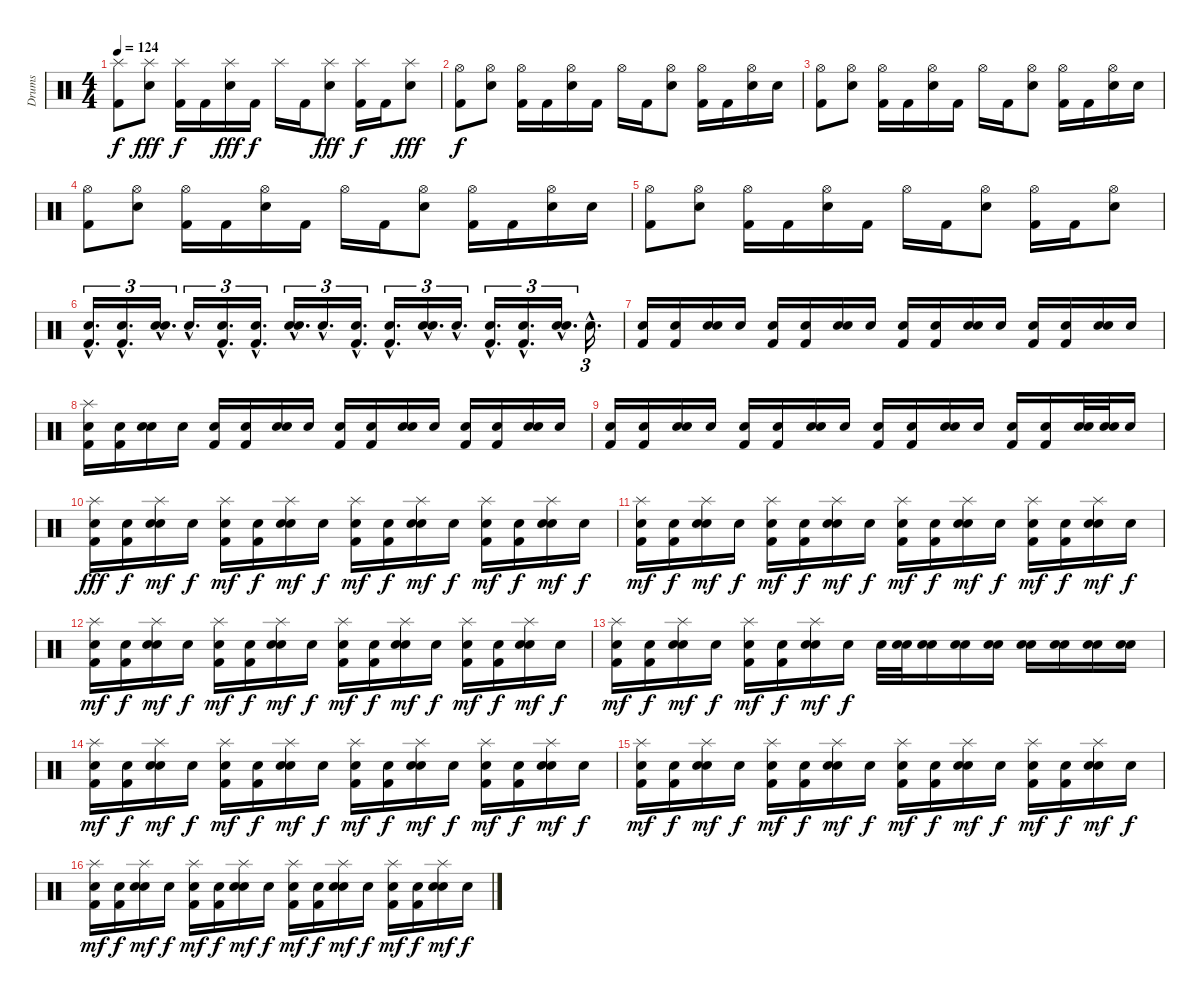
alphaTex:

\track ("Drums" "Drums") {instrument percussion}
\staff {score}
\articulation defaults
\ts (4 4)
\tempo 124
\clef neutral
\ks c
("Splash (hit)" "Kick (hit) 2").8{dy f} ("Splash (hit)" "Electric Snare (hit)").8{dy fff} ("Splash (hit)" "Kick (hit) 2").16{dy f} "Kick (hit) 2".16 ("Splash (hit)" "Electric Snare (hit)").16{dy fff} "Kick (hit) 2".16{dy f} "Splash (hit)".16 "Kick (hit) 2".16 ("Splash (hit)" "Electric Snare (hit)").8{dy fff} ("Splash (hit)" "Kick (hit) 2").16{dy f} "Kick (hit) 2".16 ("Splash (hit)" "Electric Snare (hit)").8{dy fff} |
("Hi-Hat (open)" "Kick (hit) 2").8{dy f} ("Hi-Hat (open)" "Electric Snare (hit)").8 ("Hi-Hat (open)" "Kick (hit) 2").16 "Kick (hit) 2".16 ("Hi-Hat (open)" "Electric Snare (hit)").16 "Kick (hit) 2".16 "Hi-Hat (open)".16 "Kick (hit) 2".16 ("Hi-Hat (open)" "Electric Snare (hit)").8 ("Hi-Hat (open)" "Kick (hit) 2").16 "Kick (hit) 2".16 ("Hi-Hat (open)" "Electric Snare (hit)").16 "Electric Snare (hit)".16 |
("Hi-Hat (open)" "Kick (hit) 2").8 ("Hi-Hat (open)" "Electric Snare (hit)").8 ("Hi-Hat (open)" "Kick (hit) 2").16 "Kick (hit) 2".16 ("Hi-Hat (open)" "Electric Snare (hit)").16 "Kick (hit) 2".16 "Hi-Hat (open)".16 "Kick (hit) 2".16 ("Hi-Hat (open)" "Electric Snare (hit)").8 ("Hi-Hat (open)" "Kick (hit) 2").16 "Kick (hit) 2".16 ("Hi-Hat (open)" "Electric Snare (hit)").16 "Electric Snare (hit)".16 |
("Hi-Hat (open)" "Kick (hit) 2").8 ("Hi-Hat (open)" "Electric Snare (hit)").8 ("Hi-Hat (open)" "Kick (hit) 2").16 "Kick (hit) 2".16 ("Hi-Hat (open)" "Electric Snare (hit)").16 "Kick (hit) 2".16 "Hi-Hat (open)".16 "Kick (hit) 2".16 ("Hi-Hat (open)" "Electric Snare (hit)").8 ("Hi-Hat (open)" "Kick (hit) 2").16 "Kick (hit) 2".16 ("Hi-Hat (open)" "Electric Snare (hit)").16 "Electric Snare (hit)".16 |
("Hi-Hat (open)" "Kick (hit) 2").8 ("Hi-Hat (open)" "Electric Snare (hit)").8 ("Hi-Hat (open)" "Kick (hit) 2").16 "Kick (hit) 2".16 ("Hi-Hat (open)" "Electric Snare (hit)").16 "Kick (hit) 2".16 "Hi-Hat (open)".16 "Kick (hit) 2".16 ("Hi-Hat (open)" "Electric Snare (hit)").8 ("Hi-Hat (open)" "Kick (hit) 2").16 "Kick (hit) 2".16 ("Hi-Hat (open)" "Electric Snare (hit)").8 |
("Snare (hit)"{hac x} "Kick (hit) 2"{hac}).16{d tu (3 2)} ("Snare (hit)"{hac x} "Kick (hit) 2"{hac}).16{d tu (3 2)} ("Snare (hit)"{hac x} "Electric Snare (hit)"{hac}).16{d tu (3 2)} "Snare (hit)"{hac x}.16{d tu (3 2)} ("Snare (hit)"{hac x} "Kick (hit) 2"{hac}).16{d tu (3 2)} ("Snare (hit)"{hac x} "Kick (hit) 2"{hac}).16{d tu (3 2)} ("Snare (hit)"{hac x} "Electric Snare (hit)"{hac}).16{d tu (3 2)} "Snare (hit)"{hac x}.16{d tu (3 2)} ("Snare (hit)"{hac x} "Kick (hit) 2"{hac}).16{d tu (3 2)} ("Snare (hit)"{hac x} "Kick (hit) 2"{hac}).16{d tu (3 2)} ("Snare (hit)"{hac x} "Electric Snare (hit)"{hac}).16{d tu (3 2)} "Snare (hit)"{hac x}.16{d tu (3 2)} ("Snare (hit)"{hac x} "Kick (hit) 2"{hac}).16{d tu (3 2)} ("Snare (hit)"{hac x} "Kick (hit) 2"{hac}).16{d tu (3 2)} ("Snare (hit)"{hac x} "Electric Snare (hit)"{hac}).16{d tu (3 2)} "Snare (hit)"{hac x}.16{d tu (3 2)} |
("Snare (hit)"{x} "Kick (hit) 2").16 ("Snare (hit)"{x} "Kick (hit) 2").16 ("Snare (hit)"{x} "Electric Snare (hit)").16 "Snare (hit)"{x}.16 ("Snare (hit)"{x} "Kick (hit) 2").16 ("Snare (hit)"{x} "Kick (hit) 2").16 ("Snare (hit)"{x} "Electric Snare (hit)").16 "Snare (hit)"{x}.16 ("Snare (hit)"{x} "Kick (hit) 2").16 ("Snare (hit)"{x} "Kick (hit) 2").16 ("Snare (hit)"{x} "Electric Snare (hit)").16 "Snare (hit)"{x}.16 ("Snare (hit)"{x} "Kick (hit) 2").16 ("Snare (hit)"{x} "Kick (hit) 2").16 ("Snare (hit)"{x} "Electric Snare (hit)").16 "Snare (hit)"{x}.16 |
("Snare (hit)"{x} "Splash (hit)" "Kick (hit) 2").16 ("Snare (hit)"{x} "Kick (hit) 2").16 ("Snare (hit)"{x} "Electric Snare (hit)").16 "Snare (hit)"{x}.16 ("Snare (hit)"{x} "Kick (hit) 2").16 ("Snare (hit)"{x} "Kick (hit) 2").16 ("Snare (hit)"{x} "Electric Snare (hit)").16 "Snare (hit)"{x}.16 ("Snare (hit)"{x} "Kick (hit) 2").16 ("Snare (hit)"{x} "Kick (hit) 2").16 ("Snare (hit)"{x} "Electric Snare (hit)").16 "Snare (hit)"{x}.16 ("Snare (hit)"{x} "Kick (hit) 2").16 ("Snare (hit)"{x} "Kick (hit) 2").16 ("Snare (hit)"{x} "Electric Snare (hit)").16 "Snare (hit)"{x}.16 |
("Snare (hit)"{x} "Kick (hit) 2").16 ("Snare (hit)"{x} "Kick (hit) 2").16 ("Snare (hit)"{x} "Electric Snare (hit)").16 "Snare (hit)"{x}.16 ("Snare (hit)"{x} "Kick (hit) 2").16 ("Snare (hit)"{x} "Kick (hit) 2").16 ("Snare (hit)"{x} "Electric Snare (hit)").16 "Snare (hit)"{x}.16 ("Snare (hit)"{x} "Kick (hit) 2").16 ("Snare (hit)"{x} "Kick (hit) 2").16 ("Snare (hit)"{x} "Electric Snare (hit)").16 "Snare (hit)"{x}.16 ("Snare (hit)"{x} "Kick (hit) 2").16 ("Snare (hit)"{x} "Kick (hit) 2").16 ("Snare (hit)"{x} "Electric Snare (hit)").32 ("Snare (hit)"{x} "Electric Snare (hit)").32 "Snare (hit)"{x}.16 |
("Snare (hit)"{x} "Splash (hit)" "Kick (hit) 2").16{dy fff} ("Snare (hit)"{x} "Kick (hit) 2").16{dy f} ("Snare (hit)"{x} "Splash (hit)" "Electric Snare (hit)").16{dy mf} "Snare (hit)"{x}.16{dy f} ("Snare (hit)"{x} "Splash (hit)" "Kick (hit) 2").16{dy mf} ("Snare (hit)"{x} "Kick (hit) 2").16{dy f} ("Snare (hit)"{x} "Splash (hit)" "Electric Snare (hit)").16{dy mf} "Snare (hit)"{x}.16{dy f} ("Snare (hit)"{x} "Splash (hit)" "Kick (hit) 2").16{dy mf} ("Snare (hit)"{x} "Kick (hit) 2").16{dy f} ("Snare (hit)"{x} "Splash (hit)" "Electric Snare (hit)").16{dy mf} "Snare (hit)"{x}.16{dy f} ("Snare (hit)"{x} "Splash (hit)" "Kick (hit) 2").16{dy mf} ("Snare (hit)"{x} "Kick (hit) 2").16{dy f} ("Snare (hit)"{x} "Splash (hit)" "Electric Snare (hit)").16{dy mf} "Snare (hit)"{x}.16{dy f} |
("Snare (hit)"{x} "Splash (hit)" "Kick (hit) 2").16{dy mf} ("Snare (hit)"{x} "Kick (hit) 2").16{dy f} ("Snare (hit)"{x} "Splash (hit)" "Electric Snare (hit)").16{dy mf} "Snare (hit)"{x}.16{dy f} ("Snare (hit)"{x} "Splash (hit)" "Kick (hit) 2").16{dy mf} ("Snare (hit)"{x} "Kick (hit) 2").16{dy f} ("Snare (hit)"{x} "Splash (hit)" "Electric Snare (hit)").16{dy mf} "Snare (hit)"{x}.16{dy f} ("Snare (hit)"{x} "Splash (hit)" "Kick (hit) 2").16{dy mf} ("Snare (hit)"{x} "Kick (hit) 2").16{dy f} ("Snare (hit)"{x} "Splash (hit)" "Electric Snare (hit)").16{dy mf} "Snare (hit)"{x}.16{dy f} ("Snare (hit)"{x} "Splash (hit)" "Kick (hit) 2").16{dy mf} ("Snare (hit)"{x} "Kick (hit) 2").16{dy f} ("Snare (hit)"{x} "Splash (hit)" "Electric Snare (hit)").16{dy mf} "Snare (hit)"{x}.16{dy f} |
("Snare (hit)"{x} "Splash (hit)" "Kick (hit) 2").16{dy mf} ("Snare (hit)"{x} "Kick (hit) 2").16{dy f} ("Snare (hit)"{x} "Splash (hit)" "Electric Snare (hit)").16{dy mf} "Snare (hit)"{x}.16{dy f} ("Snare (hit)"{x} "Splash (hit)" "Kick (hit) 2").16{dy mf} ("Snare (hit)"{x} "Kick (hit) 2").16{dy f} ("Snare (hit)"{x} "Splash (hit)" "Electric Snare (hit)").16{dy mf} "Snare (hit)"{x}.16{dy f} ("Snare (hit)"{x} "Splash (hit)" "Kick (hit) 2").16{dy mf} ("Snare (hit)"{x} "Kick (hit) 2").16{dy f} ("Snare (hit)"{x} "Splash (hit)" "Electric Snare (hit)").16{dy mf} "Snare (hit)"{x}.16{dy f} ("Snare (hit)"{x} "Splash (hit)" "Kick (hit) 2").16{dy mf} ("Snare (hit)"{x} "Kick (hit) 2").16{dy f} ("Snare (hit)"{x} "Splash (hit)" "Electric Snare (hit)").16{dy mf} "Snare (hit)"{x}.16{dy f} |
("Snare (hit)"{x} "Splash (hit)" "Kick (hit) 2").16{dy mf} ("Snare (hit)"{x} "Kick (hit) 2").16{dy f} ("Snare (hit)"{x} "Splash (hit)" "Electric Snare (hit)").16{dy mf} "Snare (hit)"{x}.16{dy f} ("Snare (hit)"{x} "Splash (hit)" "Kick (hit) 2").16{dy mf} ("Snare (hit)"{x} "Kick (hit) 2").16{dy f} ("Snare (hit)"{x} "Splash (hit)" "Electric Snare (hit)").16{dy mf} "Snare (hit)"{x}.16{dy f} "Electric Snare (hit)".32 ("Snare (hit)"{x} "Electric Snare (hit)").32 ("Snare (hit)"{x} "Electric Snare (hit)").16 ("Snare (hit)"{x} "Electric Snare (hit)").16 ("Snare (hit)"{x} "Electric Snare (hit)").16 ("Snare (hit)"{x} "Electric Snare (hit)").16 ("Snare (hit)"{x} "Electric Snare (hit)").16 ("Snare (hit)"{x} "Electric Snare (hit)").16 ("Snare (hit)"{x} "Electric Snare (hit)").16 |
("Snare (hit)"{x} "Splash (hit)" "Kick (hit) 2").16{dy mf} ("Snare (hit)"{x} "Kick (hit) 2").16{dy f} ("Snare (hit)"{x} "Splash (hit)" "Electric Snare (hit)").16{dy mf} "Snare (hit)"{x}.16{dy f} ("Snare (hit)"{x} "Splash (hit)" "Kick (hit) 2").16{dy mf} ("Snare (hit)"{x} "Kick (hit) 2").16{dy f} ("Snare (hit)"{x} "Splash (hit)" "Electric Snare (hit)").16{dy mf} "Snare (hit)"{x}.16{dy f} ("Snare (hit)"{x} "Splash (hit)" "Kick (hit) 2").16{dy mf} ("Snare (hit)"{x} "Kick (hit) 2").16{dy f} ("Snare (hit)"{x} "Splash (hit)" "Electric Snare (hit)").16{dy mf} "Snare (hit)"{x}.16{dy f} ("Snare (hit)"{x} "Splash (hit)" "Kick (hit) 2").16{dy mf} ("Snare (hit)"{x} "Kick (hit) 2").16{dy f} ("Snare (hit)"{x} "Splash (hit)" "Electric Snare (hit)").16{dy mf} "Snare (hit)"{x}.16{dy f} |
("Snare (hit)"{x} "Splash (hit)" "Kick (hit) 2").16{dy mf} ("Snare (hit)"{x} "Kick (hit) 2").16{dy f} ("Snare (hit)"{x} "Splash (hit)" "Electric Snare (hit)").16{dy mf} "Snare (hit)"{x}.16{dy f} ("Snare (hit)"{x} "Splash (hit)" "Kick (hit) 2").16{dy mf} ("Snare (hit)"{x} "Kick (hit) 2").16{dy f} ("Snare (hit)"{x} "Splash (hit)" "Electric Snare (hit)").16{dy mf} "Snare (hit)"{x}.16{dy f} ("Snare (hit)"{x} "Splash (hit)" "Kick (hit) 2").16{dy mf} ("Snare (hit)"{x} "Kick (hit) 2").16{dy f} ("Snare (hit)"{x} "Splash (hit)" "Electric Snare (hit)").16{dy mf} "Snare (hit)"{x}.16{dy f} ("Snare (hit)"{x} "Splash (hit)" "Kick (hit) 2").16{dy mf} ("Snare (hit)"{x} "Kick (hit) 2").16{dy f} ("Snare (hit)"{x} "Splash (hit)" "Electric Snare (hit)").16{dy mf} "Snare (hit)"{x}.16{dy f} |
("Snare (hit)"{x} "Splash (hit)" "Kick (hit) 2").16{dy mf} ("Snare (hit)"{x} "Kick (hit) 2").16{dy f} ("Snare (hit)"{x} "Splash (hit)" "Electric Snare (hit)").16{dy mf} "Snare (hit)"{x}.16{dy f} ("Snare (hit)"{x} "Splash (hit)" "Kick (hit) 2").16{dy mf} ("Snare (hit)"{x} "Kick (hit) 2").16{dy f} ("Snare (hit)"{x} "Splash (hit)" "Electric Snare (hit)").16{dy mf} "Snare (hit)"{x}.16{dy f} ("Snare (hit)"{x} "Splash (hit)" "Kick (hit) 2").16{dy mf} ("Snare (hit)"{x} "Kick (hit) 2").16{dy f} ("Snare (hit)"{x} "Splash (hit)" "Electric Snare (hit)").16{dy mf} "Snare (hit)"{x}.16{dy f} ("Snare (hit)"{x} "Splash (hit)" "Kick (hit) 2").16{dy mf} ("Snare (hit)"{x} "Kick (hit) 2").16{dy f} ("Snare (hit)"{x} "Splash (hit)" "Electric Snare (hit)").16{dy mf} "Snare (hit)"{x}.16{dy f}
